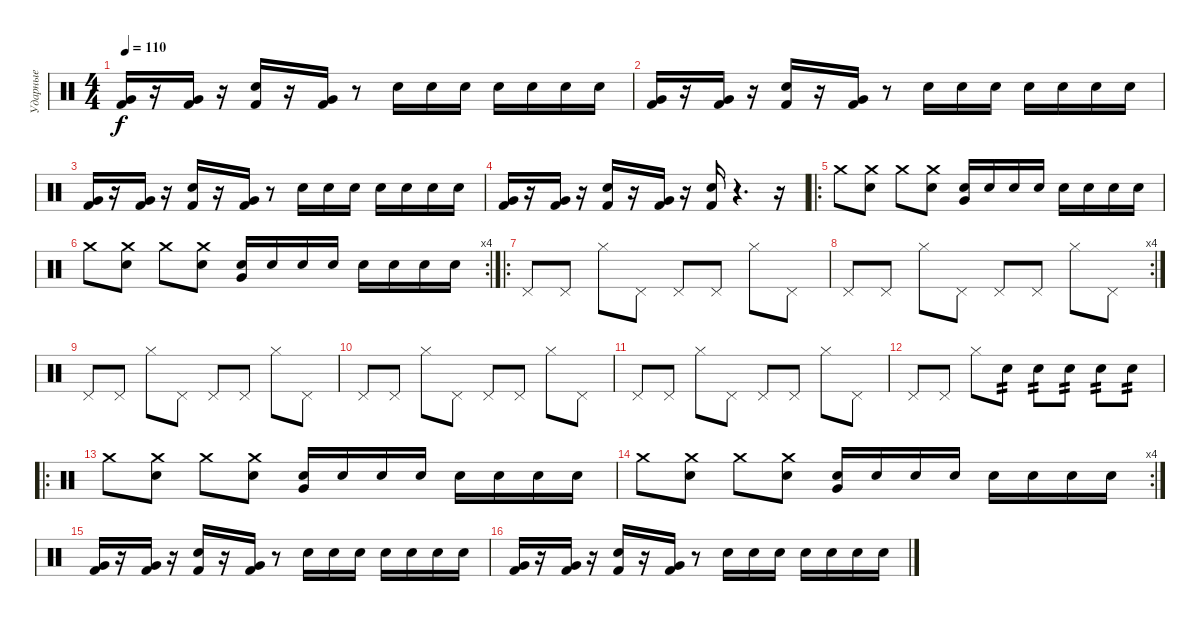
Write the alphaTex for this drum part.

\track ("Ударные" "Ударные") {instrument percussion}
\staff {score}
\articulation defaults
\ts (4 4)
\tempo 110
\clef neutral
\ks c
("Kick (hit) 2" "Very Low Tom (hit)").16{dy f} r.16 ("Kick (hit) 2" "Very Low Tom (hit)").16 r.16 ("Kick (hit) 2" "Electric Snare (hit)").16 r.16 ("Kick (hit) 2" "Very Low Tom (hit)").16 r.8 "Electric Snare (hit)".16 "Electric Snare (hit)".16 "Electric Snare (hit)".16 "Electric Snare (hit)".16 "Electric Snare (hit)".16 "Electric Snare (hit)".16 "Electric Snare (hit)".16 |
("Kick (hit) 2" "Very Low Tom (hit)").16 r.16 ("Kick (hit) 2" "Very Low Tom (hit)").16 r.16 ("Kick (hit) 2" "Electric Snare (hit)").16 r.16 ("Kick (hit) 2" "Very Low Tom (hit)").16 r.8 "Electric Snare (hit)".16 "Electric Snare (hit)".16 "Electric Snare (hit)".16 "Electric Snare (hit)".16 "Electric Snare (hit)".16 "Electric Snare (hit)".16 "Electric Snare (hit)".16 |
("Kick (hit) 2" "Very Low Tom (hit)").16 r.16 ("Kick (hit) 2" "Very Low Tom (hit)").16 r.16 ("Kick (hit) 2" "Electric Snare (hit)").16 r.16 ("Kick (hit) 2" "Very Low Tom (hit)").16 r.8 "Electric Snare (hit)".16 "Electric Snare (hit)".16 "Electric Snare (hit)".16 "Electric Snare (hit)".16 "Electric Snare (hit)".16 "Electric Snare (hit)".16 "Electric Snare (hit)".16 |
("Kick (hit) 2" "Very Low Tom (hit)").16 r.16 ("Kick (hit) 2" "Very Low Tom (hit)").16 r.16 ("Kick (hit) 2" "Electric Snare (hit)").16 r.16 ("Kick (hit) 2" "Very Low Tom (hit)").16 r.16 ("Kick (hit) 2" "Electric Snare (hit)").16 r.4{d} r.16 |
\ro "Crash medium (hit)".8
("Crash medium (hit)" "Electric Snare (hit)").8 "Crash medium (hit)".8 ("Crash medium (hit)" "Electric Snare (hit)").8 ("Electric Snare (hit)" "Very Low Tom (hit)").16 "Electric Snare (hit)".16 "Electric Snare (hit)".16 "Electric Snare (hit)".16 "Electric Snare (hit)".16 "Electric Snare (hit)".16 "Electric Snare (hit)".16 "Electric Snare (hit)".16 |
\rc 4 "Crash medium (hit)".8
("Crash medium (hit)" "Electric Snare (hit)").8 "Crash medium (hit)".8 ("Crash medium (hit)" "Electric Snare (hit)").8 ("Electric Snare (hit)" "Very Low Tom (hit)").16 "Electric Snare (hit)".16 "Electric Snare (hit)".16 "Electric Snare (hit)".16 "Electric Snare (hit)".16 "Electric Snare (hit)".16 "Electric Snare (hit)".16 "Electric Snare (hit)".16 |
\ro "Pedal Hi-Hat (hit)".8 "Pedal Hi-Hat (hit)".8 "Hi-Hat (closed)".8 "Pedal Hi-Hat (hit)".8 "Pedal Hi-Hat (hit)".8 "Pedal Hi-Hat (hit)".8 "Hi-Hat (closed)".8 "Pedal Hi-Hat (hit)".8
|
\rc 4 "Pedal Hi-Hat (hit)".8 "Pedal Hi-Hat (hit)".8 "Hi-Hat (closed)".8 "Pedal Hi-Hat (hit)".8 "Pedal Hi-Hat (hit)".8 "Pedal Hi-Hat (hit)".8 "Hi-Hat (closed)".8 "Pedal Hi-Hat (hit)".8
|
"Pedal Hi-Hat (hit)".8 "Pedal Hi-Hat (hit)".8 "Hi-Hat (closed)".8 "Pedal Hi-Hat (hit)".8 "Pedal Hi-Hat (hit)".8 "Pedal Hi-Hat (hit)".8 "Hi-Hat (closed)".8 "Pedal Hi-Hat (hit)".8 |
"Pedal Hi-Hat (hit)".8 "Pedal Hi-Hat (hit)".8 "Hi-Hat (closed)".8 "Pedal Hi-Hat (hit)".8 "Pedal Hi-Hat (hit)".8 "Pedal Hi-Hat (hit)".8 "Hi-Hat (closed)".8 "Pedal Hi-Hat (hit)".8 |
"Pedal Hi-Hat (hit)".8 "Pedal Hi-Hat (hit)".8 "Hi-Hat (closed)".8 "Pedal Hi-Hat (hit)".8 "Pedal Hi-Hat (hit)".8 "Pedal Hi-Hat (hit)".8 "Hi-Hat (closed)".8 "Pedal Hi-Hat (hit)".8 |
"Pedal Hi-Hat (hit)".8 "Pedal Hi-Hat (hit)".8 "Hi-Hat (closed)".8 "Electric Snare (hit)".8{tp 2} "Electric Snare (hit)".8{tp 2} "Electric Snare (hit)".8{tp 2} "Electric Snare (hit)".8{tp 2} "Electric Snare (hit)".8{tp 2} |
\ro "Crash medium (hit)".8
("Crash medium (hit)" "Electric Snare (hit)").8 "Crash medium (hit)".8 ("Crash medium (hit)" "Electric Snare (hit)").8 ("Electric Snare (hit)" "Very Low Tom (hit)").16 "Electric Snare (hit)".16 "Electric Snare (hit)".16 "Electric Snare (hit)".16 "Electric Snare (hit)".16 "Electric Snare (hit)".16 "Electric Snare (hit)".16 "Electric Snare (hit)".16 |
\rc 4 "Crash medium (hit)".8
("Crash medium (hit)" "Electric Snare (hit)").8 "Crash medium (hit)".8 ("Crash medium (hit)" "Electric Snare (hit)").8 ("Electric Snare (hit)" "Very Low Tom (hit)").16 "Electric Snare (hit)".16 "Electric Snare (hit)".16 "Electric Snare (hit)".16 "Electric Snare (hit)".16 "Electric Snare (hit)".16 "Electric Snare (hit)".16 "Electric Snare (hit)".16 |
("Kick (hit) 2" "Very Low Tom (hit)").16 r.16 ("Kick (hit) 2" "Very Low Tom (hit)").16 r.16 ("Kick (hit) 2" "Electric Snare (hit)").16 r.16 ("Kick (hit) 2" "Very Low Tom (hit)").16 r.8 "Electric Snare (hit)".16 "Electric Snare (hit)".16 "Electric Snare (hit)".16 "Electric Snare (hit)".16 "Electric Snare (hit)".16 "Electric Snare (hit)".16 "Electric Snare (hit)".16 |
("Kick (hit) 2" "Very Low Tom (hit)").16 r.16 ("Kick (hit) 2" "Very Low Tom (hit)").16 r.16 ("Kick (hit) 2" "Electric Snare (hit)").16 r.16 ("Kick (hit) 2" "Very Low Tom (hit)").16 r.8 "Electric Snare (hit)".16 "Electric Snare (hit)".16 "Electric Snare (hit)".16 "Electric Snare (hit)".16 "Electric Snare (hit)".16 "Electric Snare (hit)".16 "Electric Snare (hit)".16
